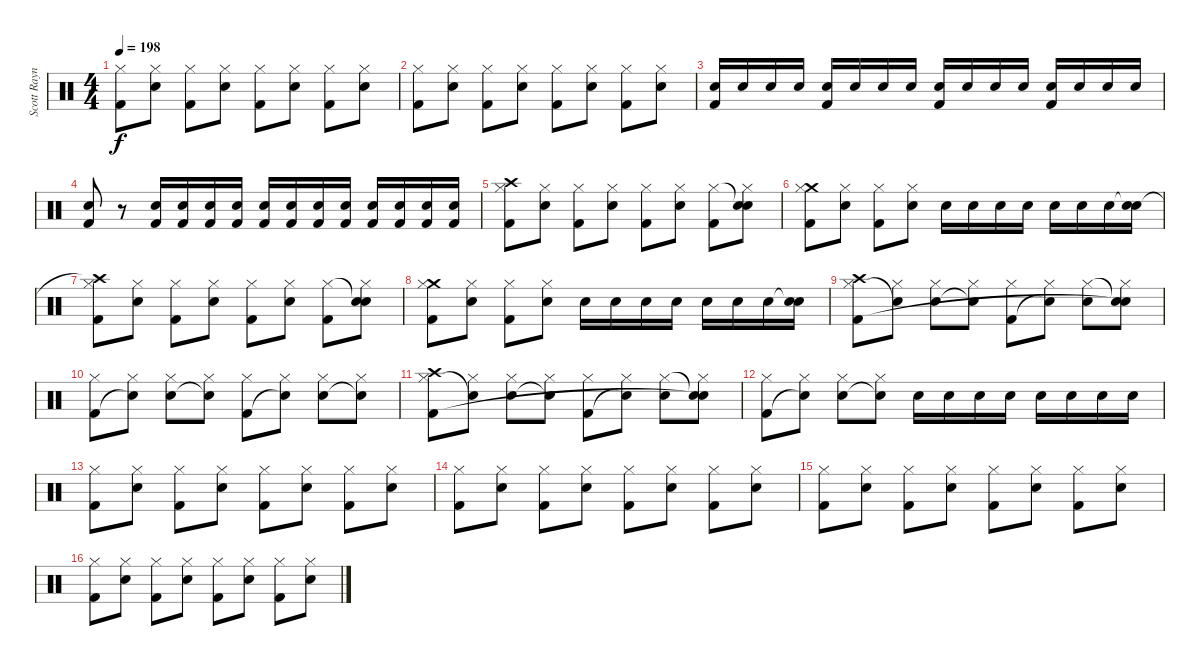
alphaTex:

\track ("Scott Raynor Drums" "Scott Rayn") {instrument percussion}
\staff {score}
\articulation defaults
\ts (4 4)
\tempo 198
\clef neutral
\ks c
("Hi-Hat (closed)" "Kick (hit) 2").8{dy f} ("Hi-Hat (closed)" "Electric Snare (hit)").8 ("Hi-Hat (closed)" "Kick (hit) 2").8 ("Hi-Hat (closed)" "Electric Snare (hit)").8 ("Hi-Hat (closed)" "Kick (hit) 2").8 ("Hi-Hat (closed)" "Electric Snare (hit)").8 ("Hi-Hat (closed)" "Kick (hit) 2").8 ("Hi-Hat (closed)" "Electric Snare (hit)").8 |
("Hi-Hat (closed)" "Kick (hit) 2").8 ("Hi-Hat (closed)" "Electric Snare (hit)").8 ("Hi-Hat (closed)" "Kick (hit) 2").8 ("Hi-Hat (closed)" "Electric Snare (hit)").8 ("Hi-Hat (closed)" "Kick (hit) 2").8 ("Hi-Hat (closed)" "Electric Snare (hit)").8 ("Hi-Hat (closed)" "Kick (hit) 2").8 ("Hi-Hat (closed)" "Electric Snare (hit)").8 |
("Electric Snare (hit)" "Kick (hit) 2").16 "Electric Snare (hit)".16 "Electric Snare (hit)".16 "Electric Snare (hit)".16 ("Electric Snare (hit)" "Kick (hit) 2").16 "Electric Snare (hit)".16 "Electric Snare (hit)".16 "Electric Snare (hit)".16 ("Electric Snare (hit)" "Kick (hit) 2").16 "Electric Snare (hit)".16 "Electric Snare (hit)".16 "Electric Snare (hit)".16 ("Electric Snare (hit)" "Kick (hit) 2").16 "Electric Snare (hit)".16 "Electric Snare (hit)".16 "Electric Snare (hit)".16 |
("Electric Snare (hit)" "Kick (hit) 2").8 r.8 ("Electric Snare (hit)" "Kick (hit) 2").16 ("Electric Snare (hit)" "Kick (hit) 2").16 ("Electric Snare (hit)" "Kick (hit) 2").16 ("Electric Snare (hit)" "Kick (hit) 2").16 ("Electric Snare (hit)" "Kick (hit) 2").16 ("Electric Snare (hit)" "Kick (hit) 2").16 ("Electric Snare (hit)" "Kick (hit) 2").16 ("Electric Snare (hit)" "Kick (hit) 2").16 ("Electric Snare (hit)" "Kick (hit) 2").16 ("Electric Snare (hit)" "Kick (hit) 2").16 ("Electric Snare (hit)" "Kick (hit) 2").16 ("Electric Snare (hit)" "Kick (hit) 2").16 |
("Crash high (hit)" "Hi-Hat (closed)" "Kick (hit) 2").8 ("Hi-Hat (closed)" "Electric Snare (hit)").8 ("Hi-Hat (closed)" "Kick (hit) 2").8 ("Hi-Hat (closed)" "Electric Snare (hit)").8 ("Hi-Hat (closed)" "Kick (hit) 2").8 ("Hi-Hat (closed)" "Electric Snare (hit)").8 ("Hi-Hat (closed)" "Kick (hit) 2").8 ("Snare (hit)"{t} "Hi-Hat (closed)" "Electric Snare (hit)").8 |
("Crash medium (hit)" "Hi-Hat (closed)" "Kick (hit) 2").8 ("Hi-Hat (closed)" "Electric Snare (hit)").8 ("Hi-Hat (closed)" "Kick (hit) 2").8 ("Hi-Hat (closed)" "Electric Snare (hit)").8 "Electric Snare (hit)".16 "Electric Snare (hit)".16 "Electric Snare (hit)".16 "Electric Snare (hit)".16 "Electric Snare (hit)".16 "Electric Snare (hit)".16 "Electric Snare (hit)".16 ("Snare (hit)"{t} "Electric Snare (hit)").16 |
("Crash high (hit)"{t} "Hi-Hat (closed)" "Kick (hit) 2").8 ("Hi-Hat (closed)" "Electric Snare (hit)").8 ("Hi-Hat (closed)" "Kick (hit) 2").8 ("Hi-Hat (closed)" "Electric Snare (hit)").8 ("Hi-Hat (closed)" "Kick (hit) 2").8 ("Hi-Hat (closed)" "Electric Snare (hit)").8 ("Hi-Hat (closed)" "Kick (hit) 2").8 ("Snare (hit)"{t} "Hi-Hat (closed)" "Electric Snare (hit)").8 |
("Crash medium (hit)" "Hi-Hat (closed)" "Kick (hit) 2").8 ("Hi-Hat (closed)" "Electric Snare (hit)").8 ("Hi-Hat (closed)" "Kick (hit) 2").8 ("Hi-Hat (closed)" "Electric Snare (hit)").8 "Electric Snare (hit)".16 "Electric Snare (hit)".16 "Electric Snare (hit)".16 "Electric Snare (hit)".16 "Electric Snare (hit)".16 "Electric Snare (hit)".16 "Electric Snare (hit)".16 ("Snare (hit)"{t} "Electric Snare (hit)").16 |
("Crash high (hit)" "Hi-Hat (closed)" "Kick (hit) 2").8 ("Hi-Hat (closed)" "Snare (hit)"{t}).8 ("Hi-Hat (closed)" "Electric Snare (hit)").8 ("Hi-Hat (closed)" "Snare (hit)"{t}).8 ("Hi-Hat (closed)" "Kick (hit) 2").8 ("Hi-Hat (closed)" "Snare (hit)"{t}).8 ("Hi-Hat (closed)" "Electric Snare (hit)").8 ("Snare (hit)"{t} "Hi-Hat (closed)" "Snare (hit)"{t}).8 |
("Hi-Hat (closed)" "Kick (hit) 2").8 ("Hi-Hat (closed)" "Snare (hit)"{t}).8 ("Hi-Hat (closed)" "Electric Snare (hit)").8 ("Hi-Hat (closed)" "Snare (hit)"{t}).8 ("Hi-Hat (closed)" "Kick (hit) 2").8 ("Hi-Hat (closed)" "Snare (hit)"{t}).8 ("Hi-Hat (closed)" "Electric Snare (hit)").8 ("Hi-Hat (closed)" "Snare (hit)"{t}).8 |
("Crash high (hit)" "Hi-Hat (closed)" "Kick (hit) 2").8 ("Hi-Hat (closed)" "Snare (hit)"{t}).8 ("Hi-Hat (closed)" "Electric Snare (hit)").8 ("Hi-Hat (closed)" "Snare (hit)"{t}).8 ("Hi-Hat (closed)" "Kick (hit) 2").8 ("Hi-Hat (closed)" "Snare (hit)"{t}).8 ("Hi-Hat (closed)" "Electric Snare (hit)").8 ("Snare (hit)"{t} "Hi-Hat (closed)" "Snare (hit)"{t}).8 |
("Hi-Hat (closed)" "Kick (hit) 2").8 ("Hi-Hat (closed)" "Snare (hit)"{t}).8 ("Hi-Hat (closed)" "Electric Snare (hit)").8 ("Hi-Hat (closed)" "Snare (hit)"{t}).8 "Electric Snare (hit)".16 "Electric Snare (hit)".16 "Electric Snare (hit)".16 "Electric Snare (hit)".16 "Electric Snare (hit)".16 "Electric Snare (hit)".16 "Electric Snare (hit)".16 "Electric Snare (hit)".16 |
("Hi-Hat (closed)" "Kick (hit) 2").8 ("Hi-Hat (closed)" "Electric Snare (hit)").8 ("Hi-Hat (closed)" "Kick (hit) 2").8 ("Hi-Hat (closed)" "Electric Snare (hit)").8 ("Hi-Hat (closed)" "Kick (hit) 2").8 ("Hi-Hat (closed)" "Electric Snare (hit)").8 ("Hi-Hat (closed)" "Kick (hit) 2").8 ("Hi-Hat (closed)" "Electric Snare (hit)").8 |
("Hi-Hat (closed)" "Kick (hit) 2").8 ("Hi-Hat (closed)" "Electric Snare (hit)").8 ("Hi-Hat (closed)" "Kick (hit) 2").8 ("Hi-Hat (closed)" "Electric Snare (hit)").8 ("Hi-Hat (closed)" "Kick (hit) 2").8 ("Hi-Hat (closed)" "Electric Snare (hit)").8 ("Hi-Hat (closed)" "Kick (hit) 2").8 ("Hi-Hat (closed)" "Electric Snare (hit)").8 |
("Hi-Hat (closed)" "Kick (hit) 2").8 ("Hi-Hat (closed)" "Electric Snare (hit)").8 ("Hi-Hat (closed)" "Kick (hit) 2").8 ("Hi-Hat (closed)" "Electric Snare (hit)").8 ("Hi-Hat (closed)" "Kick (hit) 2").8 ("Hi-Hat (closed)" "Electric Snare (hit)").8 ("Hi-Hat (closed)" "Kick (hit) 2").8 ("Hi-Hat (closed)" "Electric Snare (hit)").8 |
("Hi-Hat (closed)" "Kick (hit) 2").8 ("Hi-Hat (closed)" "Electric Snare (hit)").8 ("Hi-Hat (closed)" "Kick (hit) 2").8 ("Hi-Hat (closed)" "Electric Snare (hit)").8 ("Hi-Hat (closed)" "Kick (hit) 2").8 ("Hi-Hat (closed)" "Electric Snare (hit)").8 ("Hi-Hat (closed)" "Kick (hit) 2").8 ("Hi-Hat (closed)" "Electric Snare (hit)").8
